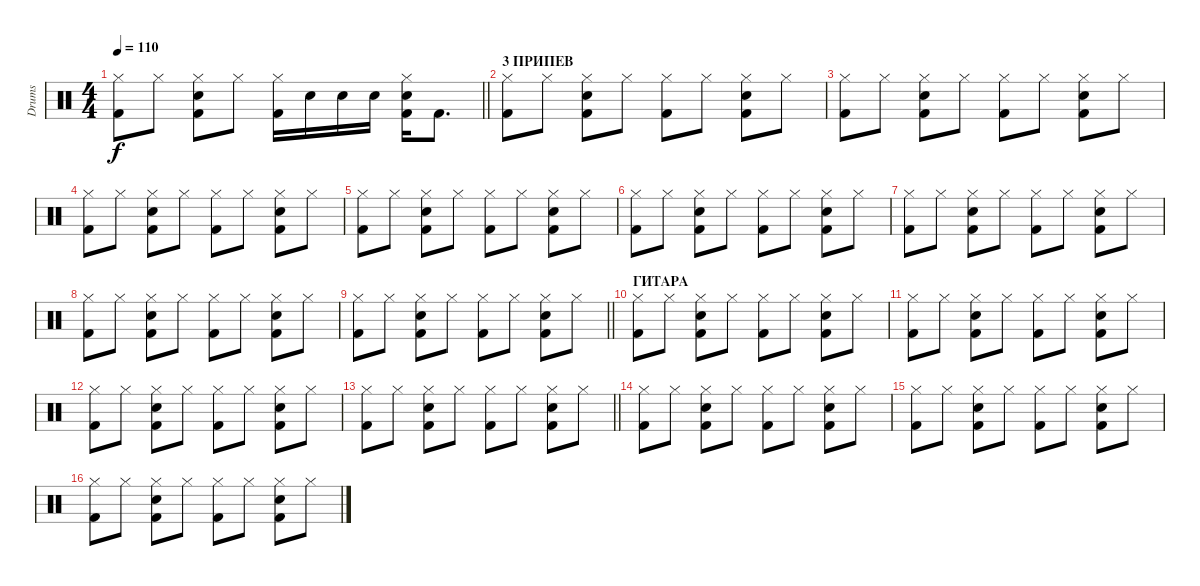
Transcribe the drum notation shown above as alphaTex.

\track ("Drums" "Drums") {instrument percussion}
\staff {score}
\articulation defaults
\ts (4 4)
\tempo 110
\clef neutral
\barLineRight lightlight
\ks c
("Hi-Hat (closed)" "Kick (hit) 2").8{dy f} "Hi-Hat (closed)".8 ("Hi-Hat (closed)" "Snare (hit) 2" "Kick (hit) 2").8 "Hi-Hat (closed)".8 ("Hi-Hat (closed)" "Kick (hit) 2").16 "Snare (hit) 2".16 "Snare (hit) 2".16 "Snare (hit) 2".16 ("Hi-Hat (closed)" "Snare (hit) 2" "Kick (hit) 2").16 "Kick (hit) 2".8{d} |
\section ("" "3 ПРИПЕВ")
("Hi-Hat (closed)" "Kick (hit) 2").8 "Hi-Hat (closed)".8 ("Hi-Hat (closed)" "Snare (hit) 2" "Kick (hit) 2").8 "Hi-Hat (closed)".8 ("Hi-Hat (closed)" "Kick (hit) 2").8 "Hi-Hat (closed)".8 ("Hi-Hat (closed)" "Snare (hit) 2" "Kick (hit) 2").8 "Hi-Hat (closed)".8 |
("Hi-Hat (closed)" "Kick (hit) 2").8 "Hi-Hat (closed)".8 ("Hi-Hat (closed)" "Snare (hit) 2" "Kick (hit) 2").8 "Hi-Hat (closed)".8 ("Hi-Hat (closed)" "Kick (hit) 2").8 "Hi-Hat (closed)".8 ("Hi-Hat (closed)" "Snare (hit) 2" "Kick (hit) 2").8 "Hi-Hat (closed)".8 |
("Hi-Hat (closed)" "Kick (hit) 2").8 "Hi-Hat (closed)".8 ("Hi-Hat (closed)" "Snare (hit) 2" "Kick (hit) 2").8 "Hi-Hat (closed)".8 ("Hi-Hat (closed)" "Kick (hit) 2").8 "Hi-Hat (closed)".8 ("Hi-Hat (closed)" "Snare (hit) 2" "Kick (hit) 2").8 "Hi-Hat (closed)".8 |
("Hi-Hat (closed)" "Kick (hit) 2").8 "Hi-Hat (closed)".8 ("Hi-Hat (closed)" "Snare (hit) 2" "Kick (hit) 2").8 "Hi-Hat (closed)".8 ("Hi-Hat (closed)" "Kick (hit) 2").8 "Hi-Hat (closed)".8 ("Hi-Hat (closed)" "Snare (hit) 2" "Kick (hit) 2").8 "Hi-Hat (closed)".8 |
("Hi-Hat (closed)" "Kick (hit) 2").8 "Hi-Hat (closed)".8 ("Hi-Hat (closed)" "Snare (hit) 2" "Kick (hit) 2").8 "Hi-Hat (closed)".8 ("Hi-Hat (closed)" "Kick (hit) 2").8 "Hi-Hat (closed)".8 ("Hi-Hat (closed)" "Snare (hit) 2" "Kick (hit) 2").8 "Hi-Hat (closed)".8 |
("Hi-Hat (closed)" "Kick (hit) 2").8 "Hi-Hat (closed)".8 ("Hi-Hat (closed)" "Snare (hit) 2" "Kick (hit) 2").8 "Hi-Hat (closed)".8 ("Hi-Hat (closed)" "Kick (hit) 2").8 "Hi-Hat (closed)".8 ("Hi-Hat (closed)" "Snare (hit) 2" "Kick (hit) 2").8 "Hi-Hat (closed)".8 |
("Hi-Hat (closed)" "Kick (hit) 2").8 "Hi-Hat (closed)".8 ("Hi-Hat (closed)" "Snare (hit) 2" "Kick (hit) 2").8 "Hi-Hat (closed)".8 ("Hi-Hat (closed)" "Kick (hit) 2").8 "Hi-Hat (closed)".8 ("Hi-Hat (closed)" "Snare (hit) 2" "Kick (hit) 2").8 "Hi-Hat (closed)".8 |
\barLineRight lightlight
("Hi-Hat (closed)" "Kick (hit) 2").8 "Hi-Hat (closed)".8 ("Hi-Hat (closed)" "Snare (hit) 2" "Kick (hit) 2").8 "Hi-Hat (closed)".8 ("Hi-Hat (closed)" "Kick (hit) 2").8 "Hi-Hat (closed)".8 ("Hi-Hat (closed)" "Snare (hit) 2" "Kick (hit) 2").8 "Hi-Hat (closed)".8 |
\section ("" "ГИТАРА")
("Hi-Hat (closed)" "Kick (hit) 2").8 "Hi-Hat (closed)".8 ("Hi-Hat (closed)" "Snare (hit) 2" "Kick (hit) 2").8 "Hi-Hat (closed)".8 ("Hi-Hat (closed)" "Kick (hit) 2").8 "Hi-Hat (closed)".8 ("Hi-Hat (closed)" "Snare (hit) 2" "Kick (hit) 2").8 "Hi-Hat (closed)".8 |
("Hi-Hat (closed)" "Kick (hit) 2").8 "Hi-Hat (closed)".8 ("Hi-Hat (closed)" "Snare (hit) 2" "Kick (hit) 2").8 "Hi-Hat (closed)".8 ("Hi-Hat (closed)" "Kick (hit) 2").8 "Hi-Hat (closed)".8 ("Hi-Hat (closed)" "Snare (hit) 2" "Kick (hit) 2").8 "Hi-Hat (closed)".8 |
("Hi-Hat (closed)" "Kick (hit) 2").8 "Hi-Hat (closed)".8 ("Hi-Hat (closed)" "Snare (hit) 2" "Kick (hit) 2").8 "Hi-Hat (closed)".8 ("Hi-Hat (closed)" "Kick (hit) 2").8 "Hi-Hat (closed)".8 ("Hi-Hat (closed)" "Snare (hit) 2" "Kick (hit) 2").8 "Hi-Hat (closed)".8 |
\barLineRight lightlight
("Hi-Hat (closed)" "Kick (hit) 2").8 "Hi-Hat (closed)".8 ("Hi-Hat (closed)" "Snare (hit) 2" "Kick (hit) 2").8 "Hi-Hat (closed)".8 ("Hi-Hat (closed)" "Kick (hit) 2").8 "Hi-Hat (closed)".8 ("Hi-Hat (closed)" "Snare (hit) 2" "Kick (hit) 2").8 "Hi-Hat (closed)".8 |
("Hi-Hat (closed)" "Kick (hit) 2").8 "Hi-Hat (closed)".8 ("Hi-Hat (closed)" "Snare (hit) 2" "Kick (hit) 2").8 "Hi-Hat (closed)".8 ("Hi-Hat (closed)" "Kick (hit) 2").8 "Hi-Hat (closed)".8 ("Hi-Hat (closed)" "Snare (hit) 2" "Kick (hit) 2").8 "Hi-Hat (closed)".8 |
("Hi-Hat (closed)" "Kick (hit) 2").8 "Hi-Hat (closed)".8 ("Hi-Hat (closed)" "Snare (hit) 2" "Kick (hit) 2").8 "Hi-Hat (closed)".8 ("Hi-Hat (closed)" "Kick (hit) 2").8 "Hi-Hat (closed)".8 ("Hi-Hat (closed)" "Snare (hit) 2" "Kick (hit) 2").8 "Hi-Hat (closed)".8 |
("Hi-Hat (closed)" "Kick (hit) 2").8 "Hi-Hat (closed)".8 ("Hi-Hat (closed)" "Snare (hit) 2" "Kick (hit) 2").8 "Hi-Hat (closed)".8 ("Hi-Hat (closed)" "Kick (hit) 2").8 "Hi-Hat (closed)".8 ("Hi-Hat (closed)" "Snare (hit) 2" "Kick (hit) 2").8 "Hi-Hat (closed)".8
